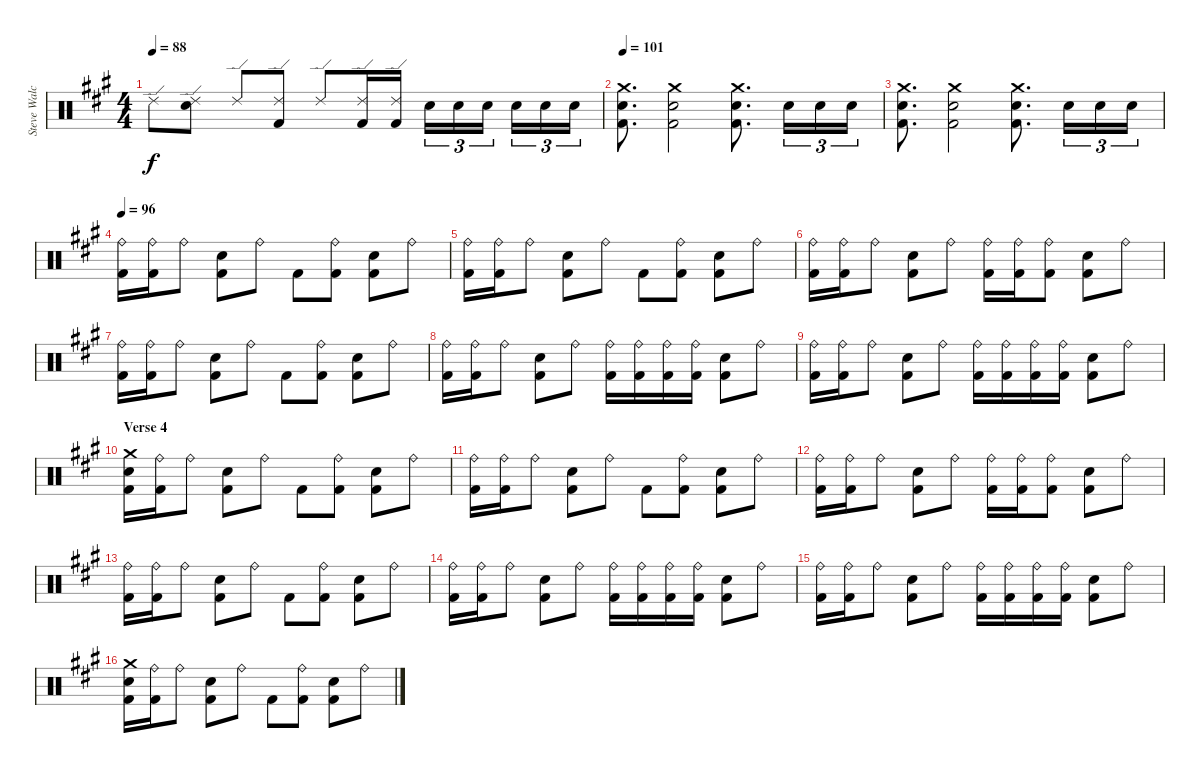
\track ("Steve Walchoz" "Steve Walc") {instrument percussion}
\staff {score}
\articulation defaults
\ts (4 4)
\tempo 88
\clef neutral
\ks a "Ride (edge) 2".8{dy f}
("Ride (edge) 2" "Snare (hit) 2").8 "Ride (edge) 2".8 ("Ride (edge) 2" "Kick (hit) 2").8 "Ride (edge) 2".8 ("Ride (edge) 2" "Kick (hit) 2").16 ("Ride (edge) 2" "Kick (hit) 2").16 "Snare (hit) 2".16{tu (3 2)} "Snare (hit) 2".16{tu (3 2)} "Snare (hit) 2".16{tu (3 2) beam splitsecondary} "Snare (hit) 2".16{tu (3 2)} "Snare (hit) 2".16{tu (3 2)} "Snare (hit) 2".16{tu (3 2)} |
\tempo 101
("Crash medium (hit)" "Snare (hit) 2" "Kick (hit) 2").8{d} ("Crash medium (hit)" "Snare (hit) 2" "Kick (hit) 2").2 ("Crash medium (hit)" "Snare (hit) 2" "Kick (hit) 2").8{d} "Snare (hit) 2".16{tu (3 2)} "Snare (hit) 2".16{tu (3 2)} "Snare (hit) 2".16{tu (3 2)} |
("Crash medium (hit)" "Snare (hit) 2" "Kick (hit) 2").8{d} ("Crash medium (hit)" "Snare (hit) 2" "Kick (hit) 2").2 ("Crash medium (hit)" "Snare (hit) 2" "Kick (hit) 2").8{d} "Snare (hit) 2".16{tu (3 2)} "Snare (hit) 2".16{tu (3 2)} "Snare (hit) 2".16{tu (3 2)} |
\tempo 96
("Ride (bell)" "Kick (hit) 2").16 ("Ride (bell)" "Kick (hit) 2").16 "Ride (bell)".8 ("Snare (hit) 2" "Kick (hit) 2").8 "Ride (bell)".8 "Kick (hit) 2".8 ("Ride (bell)" "Kick (hit) 2").8 ("Snare (hit) 2" "Kick (hit) 2").8 "Ride (bell)".8 |
("Ride (bell)" "Kick (hit) 2").16 ("Ride (bell)" "Kick (hit) 2").16 "Ride (bell)".8 ("Snare (hit) 2" "Kick (hit) 2").8 "Ride (bell)".8 "Kick (hit) 2".8 ("Ride (bell)" "Kick (hit) 2").8 ("Snare (hit) 2" "Kick (hit) 2").8 "Ride (bell)".8 |
("Ride (bell)" "Kick (hit) 2").16 ("Ride (bell)" "Kick (hit) 2").16 "Ride (bell)".8 ("Snare (hit) 2" "Kick (hit) 2").8 "Ride (bell)".8 ("Ride (bell)" "Kick (hit) 2").16 ("Ride (bell)" "Kick (hit) 2").16 ("Ride (bell)" "Kick (hit) 2").8 ("Snare (hit) 2" "Kick (hit) 2").8 "Ride (bell)".8 |
("Ride (bell)" "Kick (hit) 2").16 ("Ride (bell)" "Kick (hit) 2").16 "Ride (bell)".8 ("Snare (hit) 2" "Kick (hit) 2").8 "Ride (bell)".8 "Kick (hit) 2".8 ("Ride (bell)" "Kick (hit) 2").8 ("Snare (hit) 2" "Kick (hit) 2").8 "Ride (bell)".8 |
("Ride (bell)" "Kick (hit) 2").16 ("Ride (bell)" "Kick (hit) 2").16 "Ride (bell)".8 ("Snare (hit) 2" "Kick (hit) 2").8 "Ride (bell)".8 ("Ride (bell)" "Kick (hit) 2").16 ("Ride (bell)" "Kick (hit) 2").16 ("Ride (bell)" "Kick (hit) 2").16 ("Ride (bell)" "Kick (hit) 2").16 ("Snare (hit) 2" "Kick (hit) 2").8 "Ride (bell)".8 |
("Ride (bell)" "Kick (hit) 2").16 ("Ride (bell)" "Kick (hit) 2").16 "Ride (bell)".8 ("Snare (hit) 2" "Kick (hit) 2").8 "Ride (bell)".8 ("Ride (bell)" "Kick (hit) 2").16 ("Ride (bell)" "Kick (hit) 2").16 ("Ride (bell)" "Kick (hit) 2").16 ("Ride (bell)" "Kick (hit) 2").16 ("Snare (hit) 2" "Kick (hit) 2").8 "Ride (bell)".8 |
\section ("" "Verse 4")
("Crash medium (hit)" "Snare (hit) 2" "Kick (hit) 2").16 ("Ride (bell)" "Kick (hit) 2").16 "Ride (bell)".8 ("Snare (hit) 2" "Kick (hit) 2").8 "Ride (bell)".8 "Kick (hit) 2".8 ("Ride (bell)" "Kick (hit) 2").8 ("Snare (hit) 2" "Kick (hit) 2").8 "Ride (bell)".8 |
("Ride (bell)" "Kick (hit) 2").16 ("Ride (bell)" "Kick (hit) 2").16 "Ride (bell)".8 ("Snare (hit) 2" "Kick (hit) 2").8 "Ride (bell)".8 "Kick (hit) 2".8 ("Ride (bell)" "Kick (hit) 2").8 ("Snare (hit) 2" "Kick (hit) 2").8 "Ride (bell)".8 |
("Ride (bell)" "Kick (hit) 2").16 ("Ride (bell)" "Kick (hit) 2").16 "Ride (bell)".8 ("Snare (hit) 2" "Kick (hit) 2").8 "Ride (bell)".8 ("Ride (bell)" "Kick (hit) 2").16 ("Ride (bell)" "Kick (hit) 2").16 ("Ride (bell)" "Kick (hit) 2").8 ("Snare (hit) 2" "Kick (hit) 2").8 "Ride (bell)".8 |
("Ride (bell)" "Kick (hit) 2").16 ("Ride (bell)" "Kick (hit) 2").16 "Ride (bell)".8 ("Snare (hit) 2" "Kick (hit) 2").8 "Ride (bell)".8 "Kick (hit) 2".8 ("Ride (bell)" "Kick (hit) 2").8 ("Snare (hit) 2" "Kick (hit) 2").8 "Ride (bell)".8 |
("Ride (bell)" "Kick (hit) 2").16 ("Ride (bell)" "Kick (hit) 2").16 "Ride (bell)".8 ("Snare (hit) 2" "Kick (hit) 2").8 "Ride (bell)".8 ("Ride (bell)" "Kick (hit) 2").16 ("Ride (bell)" "Kick (hit) 2").16 ("Ride (bell)" "Kick (hit) 2").16 ("Ride (bell)" "Kick (hit) 2").16 ("Snare (hit) 2" "Kick (hit) 2").8 "Ride (bell)".8 |
("Ride (bell)" "Kick (hit) 2").16 ("Ride (bell)" "Kick (hit) 2").16 "Ride (bell)".8 ("Snare (hit) 2" "Kick (hit) 2").8 "Ride (bell)".8 ("Ride (bell)" "Kick (hit) 2").16 ("Ride (bell)" "Kick (hit) 2").16 ("Ride (bell)" "Kick (hit) 2").16 ("Ride (bell)" "Kick (hit) 2").16 ("Snare (hit) 2" "Kick (hit) 2").8 "Ride (bell)".8 |
("Crash medium (hit)" "Snare (hit) 2" "Kick (hit) 2").16 ("Ride (bell)" "Kick (hit) 2").16 "Ride (bell)".8 ("Snare (hit) 2" "Kick (hit) 2").8 "Ride (bell)".8 "Kick (hit) 2".8 ("Ride (bell)" "Kick (hit) 2").8 ("Snare (hit) 2" "Kick (hit) 2").8 "Ride (bell)".8
